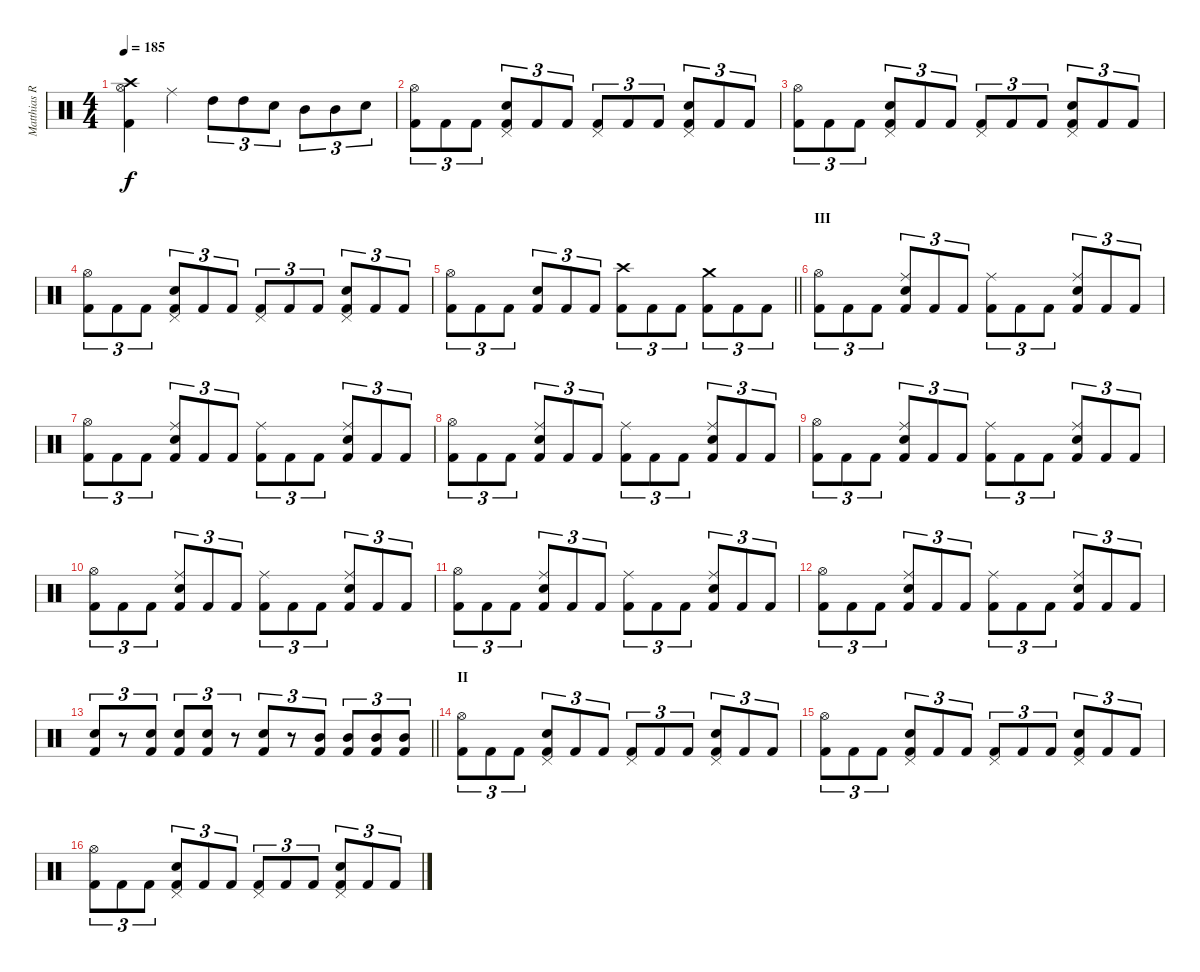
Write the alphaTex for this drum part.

\track ("Matthias R." "Matthias R") {instrument percussion}
\staff {score}
\articulation defaults
\ts (4 4)
\tempo 185
\clef neutral
\ks c
("Kick (hit) 2" "Hi-Hat (open)" "Crash high (hit)").4{dy f} "Ride (middle)".4 "High Tom (hit)".8{tu (3 2)} "High Tom (hit)".8{tu (3 2)} "Electric Snare (hit)".8{tu (3 2)} "Mid Tom (hit)".8{tu (3 2)} "Mid Tom (hit)".8{tu (3 2)} "Electric Snare (hit)".8{tu (3 2)} |
("Kick (hit) 2" "Hi-Hat (open)").8{tu (3 2)} "Kick (hit) 2".8{tu (3 2)} "Kick (hit) 2".8{tu (3 2)} ("Kick (hit) 2" "Snare (hit) 2" "Pedal Hi-Hat (hit)").8{tu (3 2)} "Kick (hit) 2".8{tu (3 2)} "Kick (hit) 2".8{tu (3 2)} ("Kick (hit) 2" "Pedal Hi-Hat (hit)").8{tu (3 2)} "Kick (hit) 2".8{tu (3 2)} "Kick (hit) 2".8{tu (3 2)} ("Kick (hit) 2" "Snare (hit) 2" "Pedal Hi-Hat (hit)").8{tu (3 2)} "Kick (hit) 2".8{tu (3 2)} "Kick (hit) 2".8{tu (3 2)} |
("Kick (hit) 2" "Hi-Hat (open)").8{tu (3 2)} "Kick (hit) 2".8{tu (3 2)} "Kick (hit) 2".8{tu (3 2)} ("Kick (hit) 2" "Snare (hit) 2" "Pedal Hi-Hat (hit)").8{tu (3 2)} "Kick (hit) 2".8{tu (3 2)} "Kick (hit) 2".8{tu (3 2)} ("Kick (hit) 2" "Pedal Hi-Hat (hit)").8{tu (3 2)} "Kick (hit) 2".8{tu (3 2)} "Kick (hit) 2".8{tu (3 2)} ("Kick (hit) 2" "Snare (hit) 2" "Pedal Hi-Hat (hit)").8{tu (3 2)} "Kick (hit) 2".8{tu (3 2)} "Kick (hit) 2".8{tu (3 2)} |
("Kick (hit) 2" "Hi-Hat (open)").8{tu (3 2)} "Kick (hit) 2".8{tu (3 2)} "Kick (hit) 2".8{tu (3 2)} ("Kick (hit) 2" "Snare (hit) 2" "Pedal Hi-Hat (hit)").8{tu (3 2)} "Kick (hit) 2".8{tu (3 2)} "Kick (hit) 2".8{tu (3 2)} ("Kick (hit) 2" "Pedal Hi-Hat (hit)").8{tu (3 2)} "Kick (hit) 2".8{tu (3 2)} "Kick (hit) 2".8{tu (3 2)} ("Kick (hit) 2" "Snare (hit) 2" "Pedal Hi-Hat (hit)").8{tu (3 2)} "Kick (hit) 2".8{tu (3 2)} "Kick (hit) 2".8{tu (3 2)} |
\barLineRight lightlight
("Kick (hit) 2" "Hi-Hat (open)").8{tu (3 2)} "Kick (hit) 2".8{tu (3 2)} "Kick (hit) 2".8{tu (3 2)} ("Kick (hit) 2" "Snare (hit) 2").8{tu (3 2)} "Kick (hit) 2".8{tu (3 2)} "Kick (hit) 2".8{tu (3 2)} ("Kick (hit) 2" "Crash high (hit)").8{tu (3 2)} "Kick (hit) 2".8{tu (3 2)} "Kick (hit) 2".8{tu (3 2)} ("Kick (hit) 2" "Crash medium (hit)").8{tu (3 2)} "Kick (hit) 2".8{tu (3 2)} "Kick (hit) 2".8{tu (3 2)} |
\section ("" "III")
("Kick (hit) 2" "Hi-Hat (open)").8{tu (3 2)} "Kick (hit) 2".8{tu (3 2)} "Kick (hit) 2".8{tu (3 2)} ("Kick (hit) 2" "Snare (hit) 2" "Ride (middle)").8{tu (3 2)} "Kick (hit) 2".8{tu (3 2)} "Kick (hit) 2".8{tu (3 2)} ("Kick (hit) 2" "Ride (middle)").8{tu (3 2)} "Kick (hit) 2".8{tu (3 2)} "Kick (hit) 2".8{tu (3 2)} ("Kick (hit) 2" "Snare (hit) 2" "Ride (middle)").8{tu (3 2)} "Kick (hit) 2".8{tu (3 2)} "Kick (hit) 2".8{tu (3 2)} |
("Kick (hit) 2" "Hi-Hat (open)").8{tu (3 2)} "Kick (hit) 2".8{tu (3 2)} "Kick (hit) 2".8{tu (3 2)} ("Kick (hit) 2" "Snare (hit) 2" "Ride (middle)").8{tu (3 2)} "Kick (hit) 2".8{tu (3 2)} "Kick (hit) 2".8{tu (3 2)} ("Kick (hit) 2" "Ride (middle)").8{tu (3 2)} "Kick (hit) 2".8{tu (3 2)} "Kick (hit) 2".8{tu (3 2)} ("Kick (hit) 2" "Snare (hit) 2" "Ride (middle)").8{tu (3 2)} "Kick (hit) 2".8{tu (3 2)} "Kick (hit) 2".8{tu (3 2)} |
("Kick (hit) 2" "Hi-Hat (open)").8{tu (3 2)} "Kick (hit) 2".8{tu (3 2)} "Kick (hit) 2".8{tu (3 2)} ("Kick (hit) 2" "Snare (hit) 2" "Ride (middle)").8{tu (3 2)} "Kick (hit) 2".8{tu (3 2)} "Kick (hit) 2".8{tu (3 2)} ("Kick (hit) 2" "Ride (middle)").8{tu (3 2)} "Kick (hit) 2".8{tu (3 2)} "Kick (hit) 2".8{tu (3 2)} ("Kick (hit) 2" "Snare (hit) 2" "Ride (middle)").8{tu (3 2)} "Kick (hit) 2".8{tu (3 2)} "Kick (hit) 2".8{tu (3 2)} |
("Kick (hit) 2" "Hi-Hat (open)").8{tu (3 2)} "Kick (hit) 2".8{tu (3 2)} "Kick (hit) 2".8{tu (3 2)} ("Kick (hit) 2" "Snare (hit) 2" "Ride (middle)").8{tu (3 2)} "Kick (hit) 2".8{tu (3 2)} "Kick (hit) 2".8{tu (3 2)} ("Kick (hit) 2" "Ride (middle)").8{tu (3 2)} "Kick (hit) 2".8{tu (3 2)} "Kick (hit) 2".8{tu (3 2)} ("Kick (hit) 2" "Snare (hit) 2" "Ride (middle)").8{tu (3 2)} "Kick (hit) 2".8{tu (3 2)} "Kick (hit) 2".8{tu (3 2)} |
("Kick (hit) 2" "Hi-Hat (open)").8{tu (3 2)} "Kick (hit) 2".8{tu (3 2)} "Kick (hit) 2".8{tu (3 2)} ("Kick (hit) 2" "Snare (hit) 2" "Ride (middle)").8{tu (3 2)} "Kick (hit) 2".8{tu (3 2)} "Kick (hit) 2".8{tu (3 2)} ("Kick (hit) 2" "Ride (middle)").8{tu (3 2)} "Kick (hit) 2".8{tu (3 2)} "Kick (hit) 2".8{tu (3 2)} ("Kick (hit) 2" "Snare (hit) 2" "Ride (middle)").8{tu (3 2)} "Kick (hit) 2".8{tu (3 2)} "Kick (hit) 2".8{tu (3 2)} |
("Kick (hit) 2" "Hi-Hat (open)").8{tu (3 2)} "Kick (hit) 2".8{tu (3 2)} "Kick (hit) 2".8{tu (3 2)} ("Kick (hit) 2" "Snare (hit) 2" "Ride (middle)").8{tu (3 2)} "Kick (hit) 2".8{tu (3 2)} "Kick (hit) 2".8{tu (3 2)} ("Kick (hit) 2" "Ride (middle)").8{tu (3 2)} "Kick (hit) 2".8{tu (3 2)} "Kick (hit) 2".8{tu (3 2)} ("Kick (hit) 2" "Snare (hit) 2" "Ride (middle)").8{tu (3 2)} "Kick (hit) 2".8{tu (3 2)} "Kick (hit) 2".8{tu (3 2)} |
("Kick (hit) 2" "Hi-Hat (open)").8{tu (3 2)} "Kick (hit) 2".8{tu (3 2)} "Kick (hit) 2".8{tu (3 2)} ("Kick (hit) 2" "Snare (hit) 2" "Ride (middle)").8{tu (3 2)} "Kick (hit) 2".8{tu (3 2)} "Kick (hit) 2".8{tu (3 2)} ("Kick (hit) 2" "Ride (middle)").8{tu (3 2)} "Kick (hit) 2".8{tu (3 2)} "Kick (hit) 2".8{tu (3 2)} ("Kick (hit) 2" "Snare (hit) 2" "Ride (middle)").8{tu (3 2)} "Kick (hit) 2".8{tu (3 2)} "Kick (hit) 2".8{tu (3 2)} |
\barLineRight lightlight
("Kick (hit) 2" "Snare (hit) 2").8{tu (3 2)} r.8{tu (3 2)} ("Kick (hit) 2" "Snare (hit) 2").8{tu (3 2)} ("Kick (hit) 2" "Snare (hit) 2").8{tu (3 2)} ("Kick (hit) 2" "Snare (hit) 2").8{tu (3 2)} r.8{tu (3 2)} ("Kick (hit) 2" "Snare (hit) 2").8{tu (3 2)} r.8{tu (3 2)} ("Kick (hit) 2" "Mid Tom (hit)").8{tu (3 2)} ("Kick (hit) 2" "Mid Tom (hit)").8{tu (3 2)} ("Kick (hit) 2" "Mid Tom (hit)").8{tu (3 2)} ("Kick (hit) 2" "Mid Tom (hit)").8{tu (3 2)} |
\section ("" "II")
("Kick (hit) 2" "Hi-Hat (open)").8{tu (3 2)} "Kick (hit) 2".8{tu (3 2)} "Kick (hit) 2".8{tu (3 2)} ("Kick (hit) 2" "Snare (hit) 2" "Pedal Hi-Hat (hit)").8{tu (3 2)} "Kick (hit) 2".8{tu (3 2)} "Kick (hit) 2".8{tu (3 2)} ("Kick (hit) 2" "Pedal Hi-Hat (hit)").8{tu (3 2)} "Kick (hit) 2".8{tu (3 2)} "Kick (hit) 2".8{tu (3 2)} ("Kick (hit) 2" "Snare (hit) 2" "Pedal Hi-Hat (hit)").8{tu (3 2)} "Kick (hit) 2".8{tu (3 2)} "Kick (hit) 2".8{tu (3 2)} |
("Kick (hit) 2" "Hi-Hat (open)").8{tu (3 2)} "Kick (hit) 2".8{tu (3 2)} "Kick (hit) 2".8{tu (3 2)} ("Kick (hit) 2" "Snare (hit) 2" "Pedal Hi-Hat (hit)").8{tu (3 2)} "Kick (hit) 2".8{tu (3 2)} "Kick (hit) 2".8{tu (3 2)} ("Kick (hit) 2" "Pedal Hi-Hat (hit)").8{tu (3 2)} "Kick (hit) 2".8{tu (3 2)} "Kick (hit) 2".8{tu (3 2)} ("Kick (hit) 2" "Snare (hit) 2" "Pedal Hi-Hat (hit)").8{tu (3 2)} "Kick (hit) 2".8{tu (3 2)} "Kick (hit) 2".8{tu (3 2)} |
("Kick (hit) 2" "Hi-Hat (open)").8{tu (3 2)} "Kick (hit) 2".8{tu (3 2)} "Kick (hit) 2".8{tu (3 2)} ("Kick (hit) 2" "Snare (hit) 2" "Pedal Hi-Hat (hit)").8{tu (3 2)} "Kick (hit) 2".8{tu (3 2)} "Kick (hit) 2".8{tu (3 2)} ("Kick (hit) 2" "Pedal Hi-Hat (hit)").8{tu (3 2)} "Kick (hit) 2".8{tu (3 2)} "Kick (hit) 2".8{tu (3 2)} ("Kick (hit) 2" "Snare (hit) 2" "Pedal Hi-Hat (hit)").8{tu (3 2)} "Kick (hit) 2".8{tu (3 2)} "Kick (hit) 2".8{tu (3 2)}
